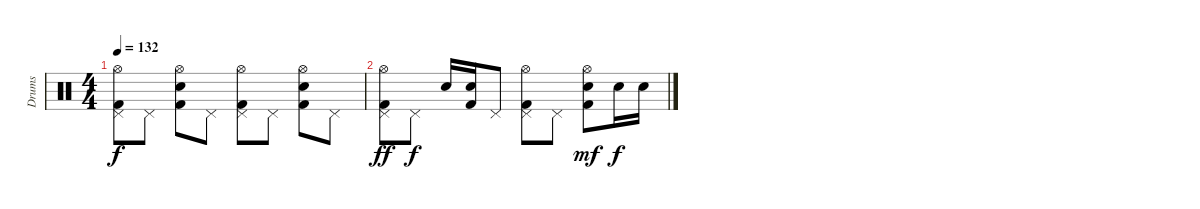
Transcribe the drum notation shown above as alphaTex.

\track ("Drums" "Drums") {instrument percussion}
\staff {score}
\articulation defaults
\ts (4 4)
\tempo 132
\clef neutral
\ks c
("Hi-Hat (open)" "Pedal Hi-Hat (hit)" "Kick (hit) 2").8{dy f} "Pedal Hi-Hat (hit)".8 ("Electric Snare (hit)" "Hi-Hat (open)" "Kick (hit) 2").8 "Pedal Hi-Hat (hit)".8 ("Hi-Hat (open)" "Pedal Hi-Hat (hit)" "Kick (hit) 2").8 "Pedal Hi-Hat (hit)".8 ("Electric Snare (hit)" "Hi-Hat (open)" "Kick (hit) 2").8 "Pedal Hi-Hat (hit)".8 |
("Hi-Hat (open)" "Pedal Hi-Hat (hit)" "Kick (hit) 2").8{dy ff} "Pedal Hi-Hat (hit)".8{dy f} "Electric Snare (hit)".16 ("Electric Snare (hit)" "Kick (hit) 2").16 "Pedal Hi-Hat (hit)".8 ("Hi-Hat (open)" "Pedal Hi-Hat (hit)" "Kick (hit) 2").8 "Pedal Hi-Hat (hit)".8 ("Electric Snare (hit)" "Hi-Hat (open)" "Kick (hit) 2").8{dy mf} "Electric Snare (hit)".16{dy f} "Electric Snare (hit)".16
